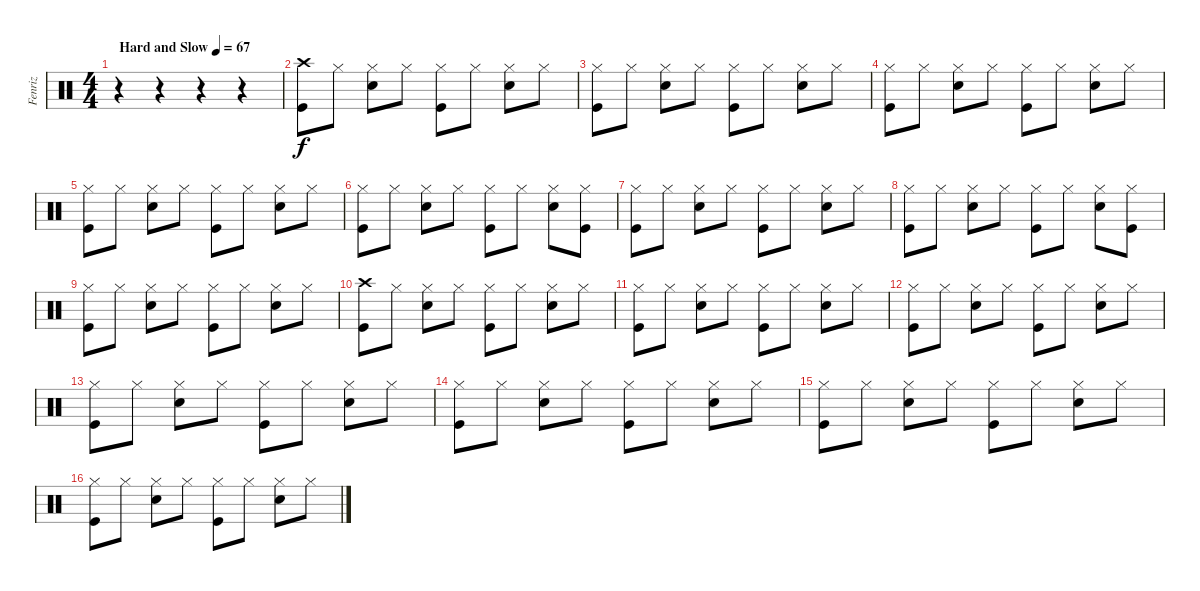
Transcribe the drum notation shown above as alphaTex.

\track ("Fenriz" "Fenriz") {instrument percussion}
\staff {score}
\articulation defaults
\ts (4 4)
\tempo (67 "Hard and Slow")
\clef neutral
\ks c
r.4{dy f} r.4 r.4 r.4 |
("Kick (hit)" "Crash high (hit)").8 "Hi-Hat (closed)".8 ("Snare (hit) 2" "Hi-Hat (closed)").8 "Hi-Hat (closed)".8 ("Kick (hit)" "Hi-Hat (closed)").8 "Hi-Hat (closed)".8 ("Snare (hit) 2" "Hi-Hat (closed)").8 "Hi-Hat (closed)".8 |
("Kick (hit)" "Hi-Hat (closed)").8 "Hi-Hat (closed)".8 ("Snare (hit) 2" "Hi-Hat (closed)").8 "Hi-Hat (closed)".8 ("Kick (hit)" "Hi-Hat (closed)").8 "Hi-Hat (closed)".8 ("Snare (hit) 2" "Hi-Hat (closed)").8 "Hi-Hat (closed)".8 |
("Kick (hit)" "Hi-Hat (closed)").8 "Hi-Hat (closed)".8 ("Snare (hit) 2" "Hi-Hat (closed)").8 "Hi-Hat (closed)".8 ("Kick (hit)" "Hi-Hat (closed)").8 "Hi-Hat (closed)".8 ("Snare (hit) 2" "Hi-Hat (closed)").8 "Hi-Hat (closed)".8 |
("Kick (hit)" "Hi-Hat (closed)").8 "Hi-Hat (closed)".8 ("Snare (hit) 2" "Hi-Hat (closed)").8 "Hi-Hat (closed)".8 ("Kick (hit)" "Hi-Hat (closed)").8 "Hi-Hat (closed)".8 ("Snare (hit) 2" "Hi-Hat (closed)").8 "Hi-Hat (closed)".8 |
("Kick (hit)" "Hi-Hat (closed)").8 "Hi-Hat (closed)".8 ("Snare (hit) 2" "Hi-Hat (closed)").8 "Hi-Hat (closed)".8 ("Kick (hit)" "Hi-Hat (closed)").8 "Hi-Hat (closed)".8 ("Snare (hit) 2" "Hi-Hat (closed)").8 ("Kick (hit)" "Hi-Hat (closed)").8 |
("Kick (hit)" "Hi-Hat (closed)").8 "Hi-Hat (closed)".8 ("Snare (hit) 2" "Hi-Hat (closed)").8 "Hi-Hat (closed)".8 ("Kick (hit)" "Hi-Hat (closed)").8 "Hi-Hat (closed)".8 ("Snare (hit) 2" "Hi-Hat (closed)").8 "Hi-Hat (closed)".8 |
("Kick (hit)" "Hi-Hat (closed)").8 "Hi-Hat (closed)".8 ("Snare (hit) 2" "Hi-Hat (closed)").8 "Hi-Hat (closed)".8 ("Kick (hit)" "Hi-Hat (closed)").8 "Hi-Hat (closed)".8 ("Snare (hit) 2" "Hi-Hat (closed)").8 ("Kick (hit)" "Hi-Hat (closed)").8 |
("Kick (hit)" "Hi-Hat (closed)").8 "Hi-Hat (closed)".8 ("Snare (hit) 2" "Hi-Hat (closed)").8 "Hi-Hat (closed)".8 ("Kick (hit)" "Hi-Hat (closed)").8 "Hi-Hat (closed)".8 ("Snare (hit) 2" "Hi-Hat (closed)").8 "Hi-Hat (closed)".8 |
("Kick (hit)" "Crash high (hit)").8 "Hi-Hat (closed)".8 ("Snare (hit) 2" "Hi-Hat (closed)").8 "Hi-Hat (closed)".8 ("Kick (hit)" "Hi-Hat (closed)").8 "Hi-Hat (closed)".8 ("Snare (hit) 2" "Hi-Hat (closed)").8 "Hi-Hat (closed)".8 |
("Kick (hit)" "Hi-Hat (closed)").8 "Hi-Hat (closed)".8 ("Snare (hit) 2" "Hi-Hat (closed)").8 "Hi-Hat (closed)".8 ("Kick (hit)" "Hi-Hat (closed)").8 "Hi-Hat (closed)".8 ("Snare (hit) 2" "Hi-Hat (closed)").8 "Hi-Hat (closed)".8 |
("Kick (hit)" "Hi-Hat (closed)").8 "Hi-Hat (closed)".8 ("Snare (hit) 2" "Hi-Hat (closed)").8 "Hi-Hat (closed)".8 ("Kick (hit)" "Hi-Hat (closed)").8 "Hi-Hat (closed)".8 ("Snare (hit) 2" "Hi-Hat (closed)").8 "Hi-Hat (closed)".8 |
("Kick (hit)" "Hi-Hat (closed)").8 "Hi-Hat (closed)".8 ("Snare (hit) 2" "Hi-Hat (closed)").8 "Hi-Hat (closed)".8 ("Kick (hit)" "Hi-Hat (closed)").8 "Hi-Hat (closed)".8 ("Snare (hit) 2" "Hi-Hat (closed)").8 "Hi-Hat (closed)".8 |
("Kick (hit)" "Hi-Hat (closed)").8 "Hi-Hat (closed)".8 ("Snare (hit) 2" "Hi-Hat (closed)").8 "Hi-Hat (closed)".8 ("Kick (hit)" "Hi-Hat (closed)").8 "Hi-Hat (closed)".8 ("Snare (hit) 2" "Hi-Hat (closed)").8 "Hi-Hat (closed)".8 |
("Kick (hit)" "Hi-Hat (closed)").8 "Hi-Hat (closed)".8 ("Snare (hit) 2" "Hi-Hat (closed)").8 "Hi-Hat (closed)".8 ("Kick (hit)" "Hi-Hat (closed)").8 "Hi-Hat (closed)".8 ("Snare (hit) 2" "Hi-Hat (closed)").8 "Hi-Hat (closed)".8 |
("Kick (hit)" "Hi-Hat (closed)").8 "Hi-Hat (closed)".8 ("Snare (hit) 2" "Hi-Hat (closed)").8 "Hi-Hat (closed)".8 ("Kick (hit)" "Hi-Hat (closed)").8 "Hi-Hat (closed)".8 ("Snare (hit) 2" "Hi-Hat (closed)").8 "Hi-Hat (closed)".8
